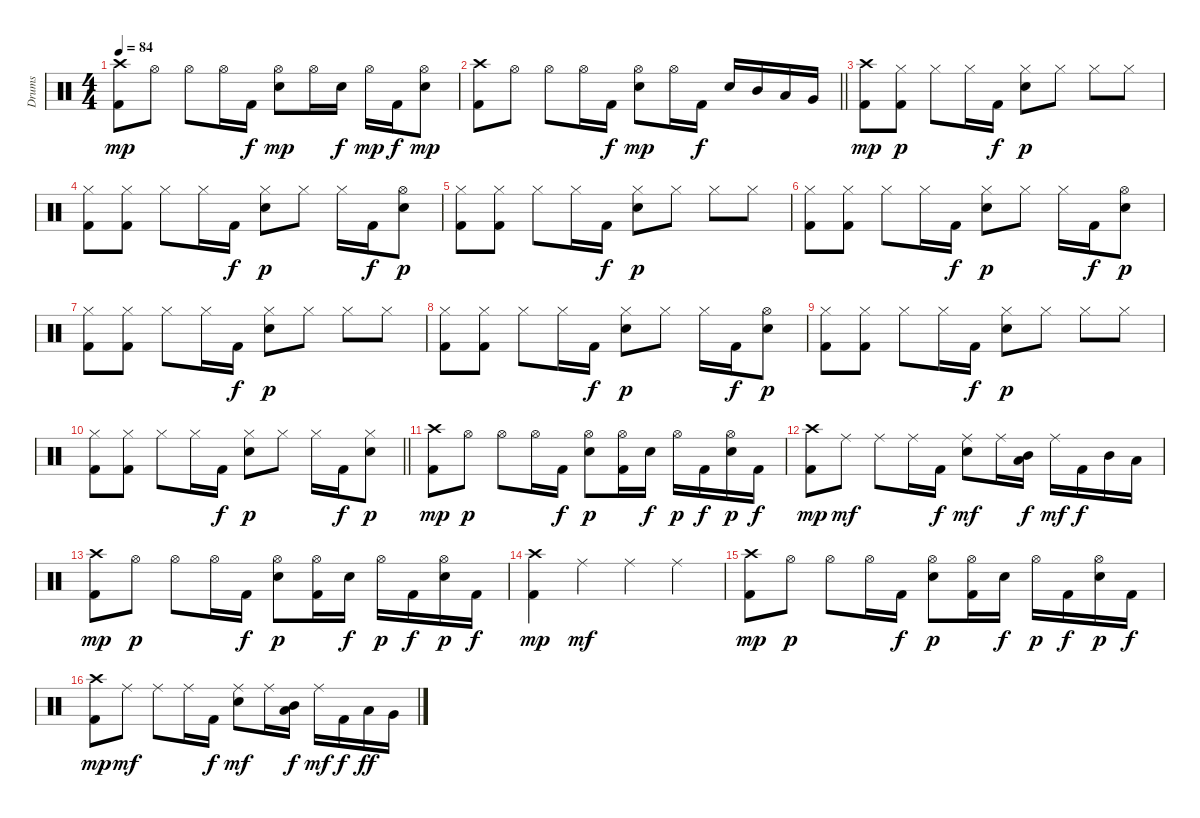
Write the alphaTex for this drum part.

\track ("Drums" "Drums") {instrument percussion}
\staff {score}
\articulation defaults
\ts (4 4)
\tempo 84
\clef neutral
\ks c
("Crash high (hit)" "Kick (hit) 2").8{dy mp volume 11} "Hi-Hat (open)".8 "Hi-Hat (open)".8 "Hi-Hat (open)".16 "Kick (hit) 2".16{dy f} ("Hi-Hat (open)" "Electric Snare (hit)").8{dy mp} "Hi-Hat (open)".16 "Electric Snare (hit)".16{dy f} "Hi-Hat (open)".16{dy mp} "Kick (hit) 2".16{dy f} ("Hi-Hat (open)" "Electric Snare (hit)").8{dy mp} |
\barLineRight lightlight
("Crash high (hit)" "Kick (hit) 2").8 "Hi-Hat (open)".8 "Hi-Hat (open)".8 "Hi-Hat (open)".16 "Kick (hit) 2".16{dy f} ("Hi-Hat (open)" "Electric Snare (hit)").8{dy mp} "Hi-Hat (open)".16 "Kick (hit) 2".16{dy f} "Electric Snare (hit)".16 "Mid Tom (hit)".16 "Low Tom (hit)".16 "Very Low Tom (hit)".16 |
("Crash high (hit)" "Kick (hit) 2").8{dy mp} ("Hi-Hat (closed)" "Kick (hit) 2").8{dy p} "Hi-Hat (closed)".8 "Hi-Hat (closed)".16 "Kick (hit) 2".16{dy f} ("Hi-Hat (closed)" "Electric Snare (hit)").8{dy p} "Hi-Hat (closed)".8 "Hi-Hat (closed)".8 "Hi-Hat (closed)".8 |
("Hi-Hat (closed)" "Kick (hit) 2").8 ("Hi-Hat (closed)" "Kick (hit) 2").8 "Hi-Hat (closed)".8 "Hi-Hat (closed)".16 "Kick (hit) 2".16{dy f} ("Hi-Hat (closed)" "Electric Snare (hit)").8{dy p} "Hi-Hat (closed)".8 "Hi-Hat (closed)".16 "Kick (hit) 2".16{dy f} ("Hi-Hat (open)" "Electric Snare (hit)").8{dy p} |
("Hi-Hat (closed)" "Kick (hit) 2").8 ("Hi-Hat (closed)" "Kick (hit) 2").8 "Hi-Hat (closed)".8 "Hi-Hat (closed)".16 "Kick (hit) 2".16{dy f} ("Hi-Hat (closed)" "Electric Snare (hit)").8{dy p} "Hi-Hat (closed)".8 "Hi-Hat (closed)".8 "Hi-Hat (closed)".8 |
("Hi-Hat (closed)" "Kick (hit) 2").8 ("Hi-Hat (closed)" "Kick (hit) 2").8 "Hi-Hat (closed)".8 "Hi-Hat (closed)".16 "Kick (hit) 2".16{dy f} ("Hi-Hat (closed)" "Electric Snare (hit)").8{dy p} "Hi-Hat (closed)".8 "Hi-Hat (closed)".16 "Kick (hit) 2".16{dy f} ("Hi-Hat (open)" "Electric Snare (hit)").8{dy p} |
("Hi-Hat (closed)" "Kick (hit) 2").8 ("Hi-Hat (closed)" "Kick (hit) 2").8 "Hi-Hat (closed)".8 "Hi-Hat (closed)".16 "Kick (hit) 2".16{dy f} ("Hi-Hat (closed)" "Electric Snare (hit)").8{dy p} "Hi-Hat (closed)".8 "Hi-Hat (closed)".8 "Hi-Hat (closed)".8 |
("Hi-Hat (closed)" "Kick (hit) 2").8 ("Hi-Hat (closed)" "Kick (hit) 2").8 "Hi-Hat (closed)".8 "Hi-Hat (closed)".16 "Kick (hit) 2".16{dy f} ("Hi-Hat (closed)" "Electric Snare (hit)").8{dy p} "Hi-Hat (closed)".8 "Hi-Hat (closed)".16 "Kick (hit) 2".16{dy f} ("Hi-Hat (open)" "Electric Snare (hit)").8{dy p} |
("Hi-Hat (closed)" "Kick (hit) 2").8 ("Hi-Hat (closed)" "Kick (hit) 2").8 "Hi-Hat (closed)".8 "Hi-Hat (closed)".16 "Kick (hit) 2".16{dy f} ("Hi-Hat (closed)" "Electric Snare (hit)").8{dy p} "Hi-Hat (closed)".8 "Hi-Hat (closed)".8 "Hi-Hat (closed)".8 |
\barLineRight lightlight
("Hi-Hat (closed)" "Kick (hit) 2").8 ("Hi-Hat (closed)" "Kick (hit) 2").8 "Hi-Hat (closed)".8 "Hi-Hat (closed)".16 "Kick (hit) 2".16{dy f} ("Hi-Hat (closed)" "Electric Snare (hit)").8{dy p} "Hi-Hat (closed)".8 "Hi-Hat (closed)".16 "Kick (hit) 2".16{dy f} ("Hi-Hat (closed)" "Electric Snare (hit)").8{dy p} |
("Crash high (hit)" "Kick (hit) 2").8{dy mp} "Hi-Hat (open)".8{dy p} "Hi-Hat (open)".8 "Hi-Hat (open)".16 "Kick (hit) 2".16{dy f} ("Hi-Hat (open)" "Electric Snare (hit)").8{dy p} ("Hi-Hat (open)" "Kick (hit) 2").16 "Electric Snare (hit)".16{dy f} "Hi-Hat (open)".16{dy p} "Kick (hit) 2".16{dy f} ("Hi-Hat (open)" "Electric Snare (hit)").16{dy p} "Kick (hit) 2".16{dy f} |
("Crash high (hit)" "Kick (hit) 2").8{dy mp} "Ride (middle)".8{dy mf} "Ride (middle)".8 "Ride (middle)".16 "Kick (hit) 2".16{dy f} ("Ride (middle)" "Electric Snare (hit)").8{dy mf} "Ride (middle)".16 ("Mid Tom (hit)" "Low Tom (hit)").16{bd 120 dy f} "Ride (middle)".16{dy mf} "Kick (hit) 2".16{dy f} "Mid Tom (hit)".16 "Low Tom (hit)".16 |
("Crash high (hit)" "Kick (hit) 2").8{dy mp} "Hi-Hat (open)".8{dy p} "Hi-Hat (open)".8 "Hi-Hat (open)".16 "Kick (hit) 2".16{dy f} ("Hi-Hat (open)" "Electric Snare (hit)").8{dy p} ("Hi-Hat (open)" "Kick (hit) 2").16 "Electric Snare (hit)".16{dy f} "Hi-Hat (open)".16{dy p} "Kick (hit) 2".16{dy f} ("Hi-Hat (open)" "Electric Snare (hit)").16{dy p} "Kick (hit) 2".16{dy f} |
("Crash high (hit)" "Kick (hit) 2").4{dy mp} "Ride (middle)".4{dy mf} "Ride (middle)".4 "Ride (middle)".4 |
("Crash high (hit)" "Kick (hit) 2").8{dy mp} "Hi-Hat (open)".8{dy p} "Hi-Hat (open)".8 "Hi-Hat (open)".16 "Kick (hit) 2".16{dy f} ("Hi-Hat (open)" "Electric Snare (hit)").8{dy p} ("Hi-Hat (open)" "Kick (hit) 2").16 "Electric Snare (hit)".16{dy f} "Hi-Hat (open)".16{dy p} "Kick (hit) 2".16{dy f} ("Hi-Hat (open)" "Electric Snare (hit)").16{dy p} "Kick (hit) 2".16{dy f} |
("Crash high (hit)" "Kick (hit) 2").8{dy mp} "Ride (middle)".8{dy mf} "Ride (middle)".8 "Ride (middle)".16 "Kick (hit) 2".16{dy f} ("Ride (middle)" "Electric Snare (hit)").8{dy mf} "Ride (middle)".16 ("Mid Tom (hit)" "Low Tom (hit)").16{bd 120 dy f} "Ride (middle)".16{dy mf} "Kick (hit) 2".16{dy f} "Low Tom (hit)".16{dy ff} "Very Low Tom (hit)".16
